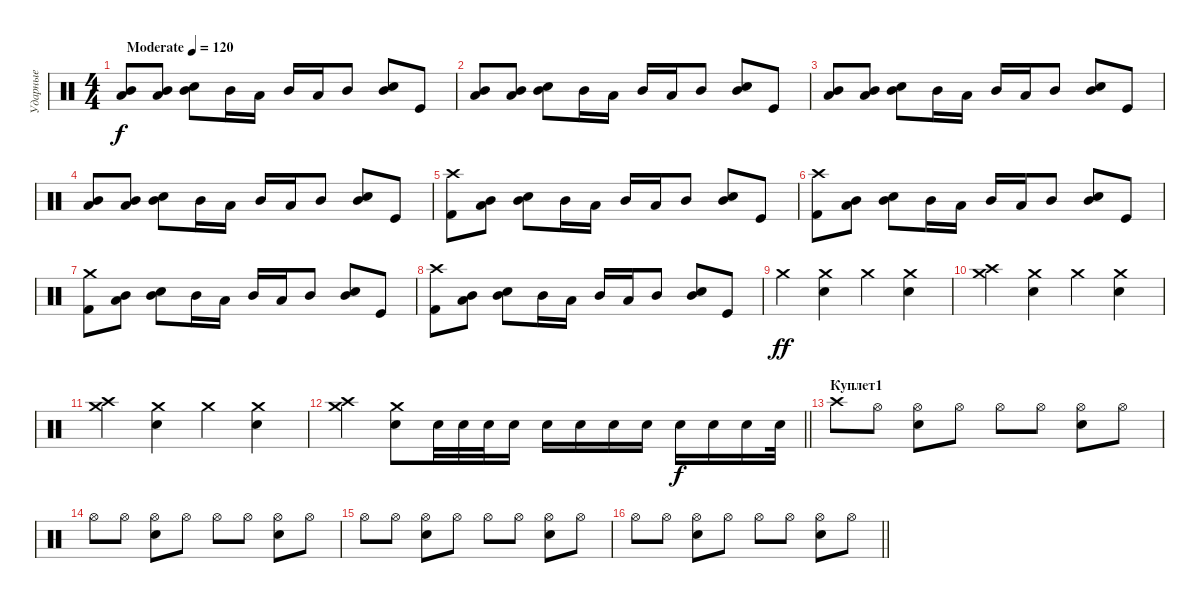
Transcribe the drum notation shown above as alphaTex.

\track ("Ударные" "Ударные") {instrument percussion}
\staff {score}
\articulation defaults
\ts (4 4)
\tempo (120 "Moderate")
\clef neutral
\ks c
("Mid Tom (hit)" "Low Tom (hit)").8{dy f} ("Mid Tom (hit)" "Low Tom (hit)").8 ("Electric Snare (hit)" "Mid Tom (hit)").8 "Mid Tom (hit)".16 "Low Tom (hit)".16 "Mid Tom (hit)".16 "Low Tom (hit)".16 "Mid Tom (hit)".8 ("Mid Tom (hit)" "Electric Snare (hit)").8 "Kick (hit)".8 |
("Mid Tom (hit)" "Low Tom (hit)").8 ("Mid Tom (hit)" "Low Tom (hit)").8 ("Electric Snare (hit)" "Mid Tom (hit)").8 "Mid Tom (hit)".16 "Low Tom (hit)".16 "Mid Tom (hit)".16 "Low Tom (hit)".16 "Mid Tom (hit)".8 ("Mid Tom (hit)" "Electric Snare (hit)").8 "Kick (hit)".8 |
("Mid Tom (hit)" "Low Tom (hit)").8 ("Mid Tom (hit)" "Low Tom (hit)").8 ("Electric Snare (hit)" "Mid Tom (hit)").8 "Mid Tom (hit)".16 "Low Tom (hit)".16 "Mid Tom (hit)".16 "Low Tom (hit)".16 "Mid Tom (hit)".8 ("Mid Tom (hit)" "Electric Snare (hit)").8 "Kick (hit)".8 |
("Mid Tom (hit)" "Low Tom (hit)").8 ("Mid Tom (hit)" "Low Tom (hit)").8 ("Electric Snare (hit)" "Mid Tom (hit)").8 "Mid Tom (hit)".16 "Low Tom (hit)".16 "Mid Tom (hit)".16 "Low Tom (hit)".16 "Mid Tom (hit)".8 ("Mid Tom (hit)" "Electric Snare (hit)").8 "Kick (hit)".8 |
("Crash high (hit)" "Kick (hit) 2").8 ("Mid Tom (hit)" "Low Tom (hit)").8 ("Electric Snare (hit)" "Mid Tom (hit)").8 "Mid Tom (hit)".16 "Low Tom (hit)".16 "Mid Tom (hit)".16 "Low Tom (hit)".16 "Mid Tom (hit)".8 ("Mid Tom (hit)" "Electric Snare (hit)").8 "Kick (hit)".8 |
("Crash high (hit)" "Kick (hit) 2").8 ("Mid Tom (hit)" "Low Tom (hit)").8 ("Electric Snare (hit)" "Mid Tom (hit)").8 "Mid Tom (hit)".16 "Low Tom (hit)".16 "Mid Tom (hit)".16 "Low Tom (hit)".16 "Mid Tom (hit)".8 ("Mid Tom (hit)" "Electric Snare (hit)").8 "Kick (hit)".8 |
("Crash medium (hit)" "Kick (hit) 2").8 ("Mid Tom (hit)" "Low Tom (hit)").8 ("Electric Snare (hit)" "Mid Tom (hit)").8 "Mid Tom (hit)".16 "Low Tom (hit)".16 "Mid Tom (hit)".16 "Low Tom (hit)".16 "Mid Tom (hit)".8 ("Mid Tom (hit)" "Electric Snare (hit)").8 "Kick (hit)".8 |
("Crash high (hit)" "Kick (hit) 2").8 ("Mid Tom (hit)" "Low Tom (hit)").8 ("Electric Snare (hit)" "Mid Tom (hit)").8 "Mid Tom (hit)".16 "Low Tom (hit)".16 "Mid Tom (hit)".16 "Low Tom (hit)".16 "Mid Tom (hit)".8 ("Mid Tom (hit)" "Electric Snare (hit)").8 "Kick (hit)".8 |
"Crash medium (hit)".4{dy ff} ("Crash medium (hit)" "Electric Snare (hit)").4 "Crash medium (hit)".4 ("Crash medium (hit)" "Electric Snare (hit)").4 |
("Crash medium (hit)" "Crash high (hit)").4 ("Crash medium (hit)" "Electric Snare (hit)").4 "Crash medium (hit)".4 ("Crash medium (hit)" "Electric Snare (hit)").4 |
("Crash medium (hit)" "Crash high (hit)").4 ("Crash medium (hit)" "Electric Snare (hit)").4 "Crash medium (hit)".4 ("Crash medium (hit)" "Electric Snare (hit)").4 |
\barLineRight lightlight
("Crash medium (hit)" "Crash high (hit)").4 ("Crash medium (hit)" "Electric Snare (hit)").8 "Electric Snare (hit)".32 "Electric Snare (hit)".32 "Electric Snare (hit)".32 "Electric Snare (hit)".16 "Electric Snare (hit)".16 "Electric Snare (hit)".16 "Electric Snare (hit)".16 "Electric Snare (hit)".16 "Electric Snare (hit)".16{dy f} "Electric Snare (hit)".16 "Electric Snare (hit)".16 "Electric Snare (hit)".32 |
\section ("" "Куплет1")
"Crash high (hit)".8 "Hi-Hat (open)".8 ("Hi-Hat (open)" "Electric Snare (hit)").8 "Hi-Hat (open)".8 "Hi-Hat (open)".8 "Hi-Hat (open)".8 ("Hi-Hat (open)" "Electric Snare (hit)").8 "Hi-Hat (open)".8 |
"Hi-Hat (open)".8 "Hi-Hat (open)".8 ("Hi-Hat (open)" "Electric Snare (hit)").8 "Hi-Hat (open)".8 "Hi-Hat (open)".8 "Hi-Hat (open)".8 ("Hi-Hat (open)" "Electric Snare (hit)").8 "Hi-Hat (open)".8 |
"Hi-Hat (open)".8 "Hi-Hat (open)".8 ("Hi-Hat (open)" "Electric Snare (hit)").8 "Hi-Hat (open)".8 "Hi-Hat (open)".8 "Hi-Hat (open)".8 ("Hi-Hat (open)" "Electric Snare (hit)").8 "Hi-Hat (open)".8 |
\barLineRight lightlight "Hi-Hat (open)".8 "Hi-Hat (open)".8
("Hi-Hat (open)" "Electric Snare (hit)").8 "Hi-Hat (open)".8 "Hi-Hat (open)".8 "Hi-Hat (open)".8 ("Hi-Hat (open)" "Electric Snare (hit)").8 "Hi-Hat (open)".8
